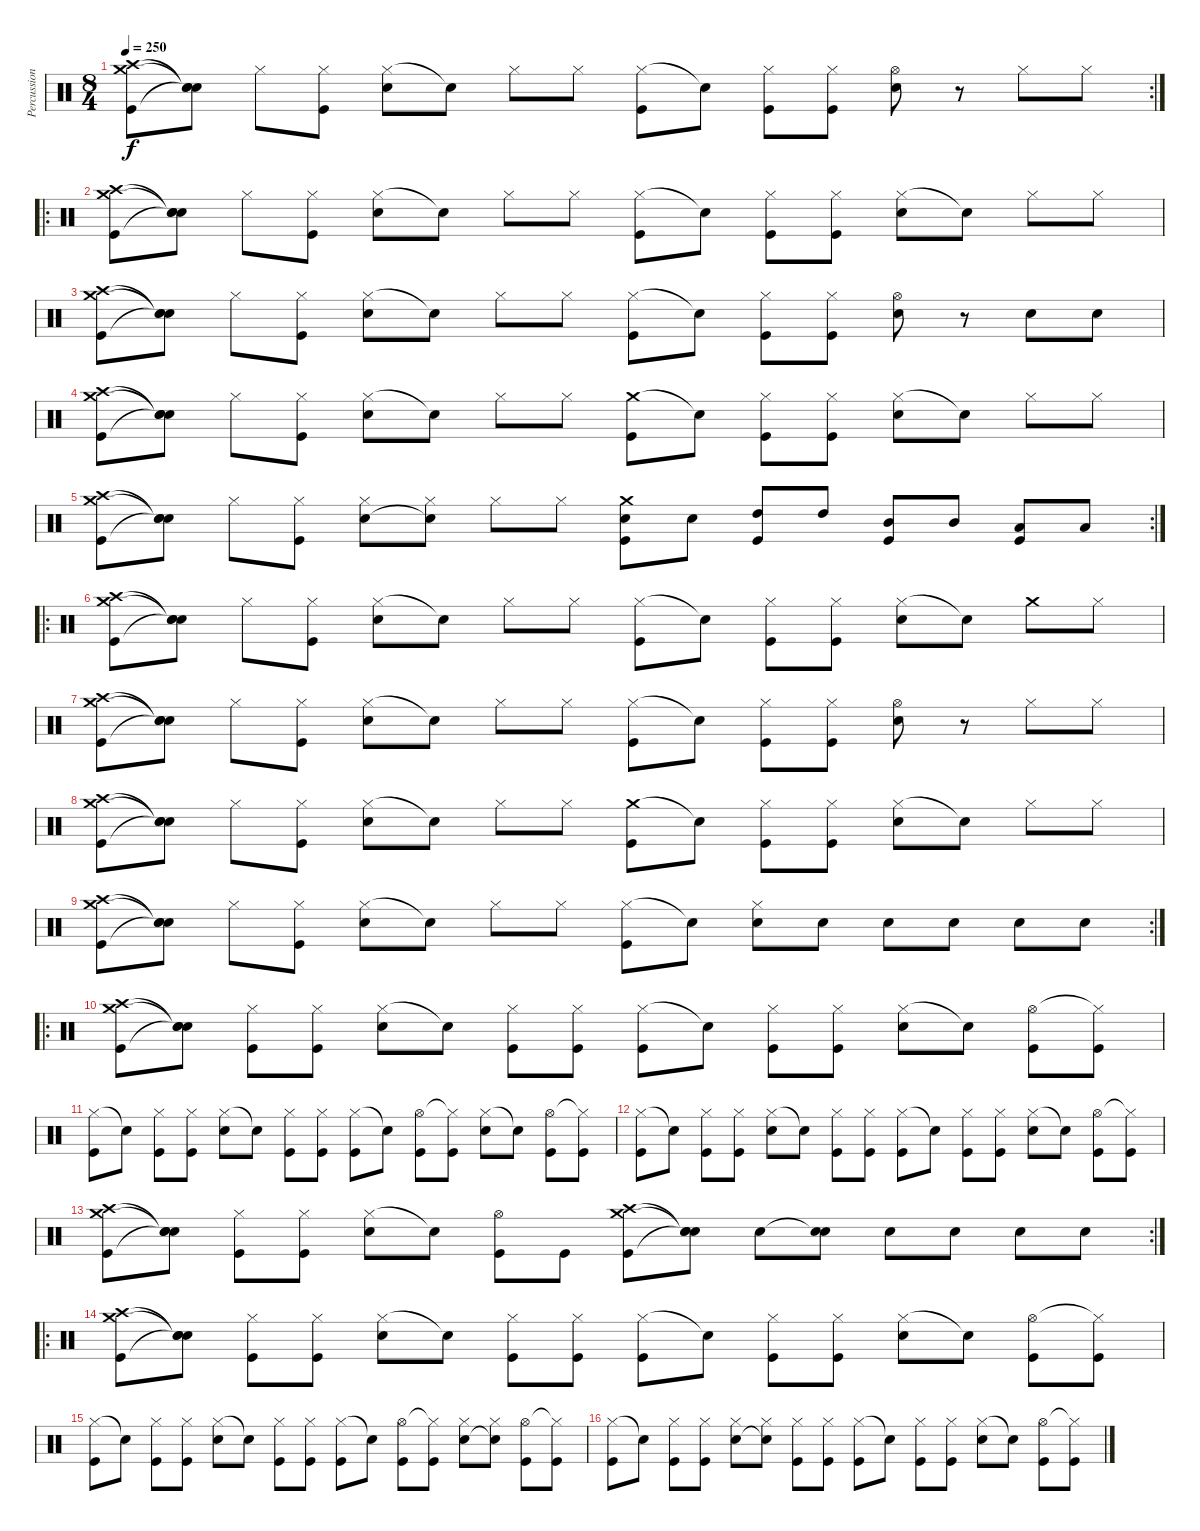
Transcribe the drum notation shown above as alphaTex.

\track ("Percussion" "Percussion") {instrument percussion}
\staff {score}
\articulation defaults
\rc 2
\ts (8 4)
\tempo 250
\clef neutral
\ks c
("Crash medium (hit)" "Crash high (hit)" "Kick (hit)").8{dy f} ("Snare (hit)"{t} "Snare (hit)"{t} "Snare (hit)"{t}).8 "Hi-Hat (closed)".8 ("Hi-Hat (closed)" "Kick (hit)").8 ("Hi-Hat (closed)" "Snare (hit) 2").8 "Snare (hit)"{t}.8 "Hi-Hat (closed)".8 "Hi-Hat (closed)".8 ("Hi-Hat (closed)" "Kick (hit)").8 "Snare (hit)"{t}.8 ("Hi-Hat (closed)" "Kick (hit)").8 ("Hi-Hat (closed)" "Kick (hit)").8 ("Hi-Hat (open)" "Snare (hit) 2").8 r.8 "Hi-Hat (closed)".8 "Hi-Hat (closed)".8 |
\ro
("Crash medium (hit)" "Crash high (hit)" "Kick (hit)").8 ("Snare (hit)"{t} "Snare (hit)"{t} "Snare (hit)"{t}).8 "Hi-Hat (closed)".8 ("Hi-Hat (closed)" "Kick (hit)").8 ("Hi-Hat (closed)" "Snare (hit) 2").8 "Snare (hit)"{t}.8 "Hi-Hat (closed)".8 "Hi-Hat (closed)".8 ("Hi-Hat (closed)" "Kick (hit)").8 "Snare (hit)"{t}.8 ("Hi-Hat (closed)" "Kick (hit)").8 ("Hi-Hat (closed)" "Kick (hit)").8 ("Hi-Hat (closed)" "Snare (hit) 2").8 "Snare (hit)"{t}.8 "Hi-Hat (closed)".8 "Hi-Hat (closed)".8 |
("Crash medium (hit)" "Crash high (hit)" "Kick (hit)").8 ("Snare (hit)"{t} "Snare (hit)"{t} "Snare (hit)"{t}).8 "Hi-Hat (closed)".8 ("Hi-Hat (closed)" "Kick (hit)").8 ("Hi-Hat (closed)" "Snare (hit) 2").8 "Snare (hit)"{t}.8 "Hi-Hat (closed)".8 "Hi-Hat (closed)".8 ("Hi-Hat (closed)" "Kick (hit)").8 "Snare (hit)"{t}.8 ("Hi-Hat (closed)" "Kick (hit)").8 ("Hi-Hat (closed)" "Kick (hit)").8 ("Hi-Hat (open)" "Snare (hit) 2").8 r.8 "Snare (hit) 2".8 "Snare (hit) 2".8 |
("Crash medium (hit)" "Crash high (hit)" "Kick (hit)").8 ("Snare (hit)"{t} "Snare (hit)"{t} "Snare (hit)"{t}).8 "Hi-Hat (closed)".8 ("Hi-Hat (closed)" "Kick (hit)").8 ("Hi-Hat (closed)" "Snare (hit) 2").8 "Snare (hit)"{t}.8 "Hi-Hat (closed)".8 "Hi-Hat (closed)".8 ("Crash medium (hit)" "Kick (hit)").8 "Snare (hit)"{t}.8 ("Hi-Hat (closed)" "Kick (hit)").8 ("Hi-Hat (closed)" "Kick (hit)").8 ("Hi-Hat (closed)" "Snare (hit) 2").8 "Snare (hit)"{t}.8 "Hi-Hat (closed)".8 "Hi-Hat (closed)".8 |
\rc 2
("Crash medium (hit)" "Crash high (hit)" "Kick (hit)").8 ("Snare (hit)"{t} "Snare (hit)"{t} "Snare (hit)"{t}).8 "Hi-Hat (closed)".8 ("Hi-Hat (closed)" "Kick (hit)").8 ("Hi-Hat (closed)" "Snare (hit) 2").8 ("Hi-Hat (closed)" "Snare (hit)"{t}).8 "Hi-Hat (closed)".8 "Hi-Hat (closed)".8 ("Crash medium (hit)" "Snare (hit) 2" "Kick (hit)").8 "Snare (hit) 2".8 ("High Tom (hit)" "Kick (hit)").8 "High Tom (hit)".8 ("Mid Tom (hit)" "Kick (hit)").8 "Mid Tom (hit)".8 ("Low Tom (hit)" "Kick (hit)").8 "Low Tom (hit)".8 |
\ro
("Crash medium (hit)" "Crash high (hit)" "Kick (hit)").8 ("Snare (hit)"{t} "Snare (hit)"{t} "Snare (hit)"{t}).8 "Hi-Hat (closed)".8 ("Hi-Hat (closed)" "Kick (hit)").8 ("Hi-Hat (closed)" "Snare (hit) 2").8 "Snare (hit)"{t}.8 "Hi-Hat (closed)".8 "Hi-Hat (closed)".8 ("Hi-Hat (closed)" "Kick (hit)").8 "Snare (hit)"{t}.8 ("Hi-Hat (closed)" "Kick (hit)").8 ("Hi-Hat (closed)" "Kick (hit)").8 ("Hi-Hat (closed)" "Snare (hit) 2").8 "Snare (hit)"{t}.8 "Crash medium (hit)".8 "Hi-Hat (closed)".8 |
("Crash medium (hit)" "Crash high (hit)" "Kick (hit)").8 ("Snare (hit)"{t} "Snare (hit)"{t} "Snare (hit)"{t}).8 "Hi-Hat (closed)".8 ("Hi-Hat (closed)" "Kick (hit)").8 ("Hi-Hat (closed)" "Snare (hit) 2").8 "Snare (hit)"{t}.8 "Hi-Hat (closed)".8 "Hi-Hat (closed)".8 ("Hi-Hat (closed)" "Kick (hit)").8 "Snare (hit)"{t}.8 ("Hi-Hat (closed)" "Kick (hit)").8 ("Hi-Hat (closed)" "Kick (hit)").8 ("Hi-Hat (open)" "Snare (hit) 2").8 r.8 "Hi-Hat (closed)".8 "Hi-Hat (closed)".8 |
("Crash medium (hit)" "Crash high (hit)" "Kick (hit)").8 ("Snare (hit)"{t} "Snare (hit)"{t} "Snare (hit)"{t}).8 "Hi-Hat (closed)".8 ("Hi-Hat (closed)" "Kick (hit)").8 ("Hi-Hat (closed)" "Snare (hit) 2").8 "Snare (hit)"{t}.8 "Hi-Hat (closed)".8 "Hi-Hat (closed)".8 ("Crash medium (hit)" "Kick (hit)").8 "Snare (hit)"{t}.8 ("Hi-Hat (closed)" "Kick (hit)").8 ("Hi-Hat (closed)" "Kick (hit)").8 ("Hi-Hat (closed)" "Snare (hit) 2").8 "Snare (hit)"{t}.8 "Hi-Hat (closed)".8 "Hi-Hat (closed)".8 |
\rc 2
("Crash medium (hit)" "Crash high (hit)" "Kick (hit)").8 ("Snare (hit)"{t} "Snare (hit)"{t} "Snare (hit)"{t}).8 "Hi-Hat (closed)".8 ("Hi-Hat (closed)" "Kick (hit)").8 ("Hi-Hat (closed)" "Snare (hit) 2").8 "Snare (hit)"{t}.8 "Hi-Hat (closed)".8 "Hi-Hat (closed)".8 ("Hi-Hat (closed)" "Kick (hit)").8 "Snare (hit)"{t}.8 ("Hi-Hat (closed)" "Snare (hit) 2").8 "Snare (hit) 2".8 "Snare (hit) 2".8 "Snare (hit) 2".8 "Snare (hit) 2".8 "Snare (hit) 2".8 |
\ro
("Crash medium (hit)" "Crash high (hit)" "Kick (hit)").8 ("Snare (hit)"{t} "Snare (hit)"{t} "Snare (hit)"{t}).8 ("Hi-Hat (closed)" "Kick (hit)").8 ("Hi-Hat (closed)" "Kick (hit)").8 ("Hi-Hat (closed)" "Snare (hit) 2").8 "Snare (hit)"{t}.8 ("Hi-Hat (closed)" "Kick (hit)").8 ("Hi-Hat (closed)" "Kick (hit)").8 ("Hi-Hat (closed)" "Kick (hit)").8 "Snare (hit)"{t}.8 ("Hi-Hat (closed)" "Kick (hit)").8 ("Hi-Hat (closed)" "Kick (hit)").8 ("Hi-Hat (closed)" "Snare (hit) 2").8 "Snare (hit)"{t}.8 ("Hi-Hat (open)" "Kick (hit)").8 ("Hi-Hat (closed)"{t} "Kick (hit)").8 |
("Hi-Hat (closed)" "Kick (hit)").8 "Snare (hit)"{t}.8 ("Hi-Hat (closed)" "Kick (hit)").8 ("Hi-Hat (closed)" "Kick (hit)").8 ("Hi-Hat (closed)" "Snare (hit) 2").8 "Snare (hit)"{t}.8 ("Hi-Hat (closed)" "Kick (hit)").8 ("Hi-Hat (closed)" "Kick (hit)").8 ("Hi-Hat (closed)" "Kick (hit)").8 "Snare (hit)"{t}.8 ("Hi-Hat (open)" "Kick (hit)").8 ("Hi-Hat (closed)"{t} "Kick (hit)").8 ("Hi-Hat (closed)" "Snare (hit) 2").8 "Snare (hit)"{t}.8 ("Hi-Hat (open)" "Kick (hit)").8 ("Hi-Hat (closed)"{t} "Kick (hit)").8 |
("Hi-Hat (closed)" "Kick (hit)").8 "Snare (hit)"{t}.8 ("Hi-Hat (closed)" "Kick (hit)").8 ("Hi-Hat (closed)" "Kick (hit)").8 ("Hi-Hat (closed)" "Snare (hit) 2").8 "Snare (hit)"{t}.8 ("Hi-Hat (closed)" "Kick (hit)").8 ("Hi-Hat (closed)" "Kick (hit)").8 ("Hi-Hat (closed)" "Kick (hit)").8 "Snare (hit)"{t}.8 ("Hi-Hat (closed)" "Kick (hit)").8 ("Hi-Hat (closed)" "Kick (hit)").8 ("Hi-Hat (closed)" "Snare (hit) 2").8 "Snare (hit)"{t}.8 ("Hi-Hat (open)" "Kick (hit)").8 ("Hi-Hat (closed)"{t} "Kick (hit)").8 |
\rc 2
("Crash medium (hit)" "Crash high (hit)" "Kick (hit)").8 ("Snare (hit)"{t} "Snare (hit)"{t} "Snare (hit)"{t}).8 ("Hi-Hat (closed)" "Kick (hit)").8 ("Hi-Hat (closed)" "Kick (hit)").8 ("Hi-Hat (closed)" "Snare (hit) 2").8 "Snare (hit)"{t}.8 ("Hi-Hat (open)" "Kick (hit)").8 "Kick (hit)".8 ("Crash medium (hit)" "Crash high (hit)" "Kick (hit)").8 ("Snare (hit)"{t} "Snare (hit)"{t} "Snare (hit)"{t}).8 "Snare (hit) 2".8 ("Snare (hit)"{t} "Snare (hit) 2").8 "Snare (hit) 2".8 "Snare (hit) 2".8 "Snare (hit) 2".8 "Snare (hit) 2".8 |
\ro
("Crash medium (hit)" "Crash high (hit)" "Kick (hit)").8 ("Snare (hit)"{t} "Snare (hit)"{t} "Snare (hit)"{t}).8 ("Hi-Hat (closed)" "Kick (hit)").8 ("Hi-Hat (closed)" "Kick (hit)").8 ("Hi-Hat (closed)" "Snare (hit) 2").8 "Snare (hit)"{t}.8 ("Hi-Hat (closed)" "Kick (hit)").8 ("Hi-Hat (closed)" "Kick (hit)").8 ("Hi-Hat (closed)" "Kick (hit)").8 "Snare (hit)"{t}.8 ("Hi-Hat (closed)" "Kick (hit)").8 ("Hi-Hat (closed)" "Kick (hit)").8 ("Hi-Hat (closed)" "Snare (hit) 2").8 "Snare (hit)"{t}.8 ("Hi-Hat (open)" "Kick (hit)").8 ("Hi-Hat (closed)"{t} "Kick (hit)").8 |
("Hi-Hat (closed)" "Kick (hit)").8 "Snare (hit)"{t}.8 ("Hi-Hat (closed)" "Kick (hit)").8 ("Hi-Hat (closed)" "Kick (hit)").8 ("Hi-Hat (closed)" "Snare (hit) 2").8 "Snare (hit)"{t}.8 ("Hi-Hat (closed)" "Kick (hit)").8 ("Hi-Hat (closed)" "Kick (hit)").8 ("Hi-Hat (closed)" "Kick (hit)").8 "Snare (hit)"{t}.8 ("Hi-Hat (open)" "Kick (hit)").8 ("Hi-Hat (closed)"{t} "Kick (hit)").8 ("Hi-Hat (closed)" "Snare (hit) 2").8 ("Hi-Hat (closed)" "Snare (hit)"{t}).8 ("Hi-Hat (open)" "Kick (hit)").8 ("Hi-Hat (closed)"{t} "Kick (hit)").8 |
("Hi-Hat (closed)" "Kick (hit)").8 "Snare (hit)"{t}.8 ("Hi-Hat (closed)" "Kick (hit)").8 ("Hi-Hat (closed)" "Kick (hit)").8 ("Hi-Hat (closed)" "Snare (hit) 2").8 ("Hi-Hat (closed)" "Snare (hit)"{t}).8 ("Hi-Hat (closed)" "Kick (hit)").8 ("Hi-Hat (closed)" "Kick (hit)").8 ("Hi-Hat (closed)" "Kick (hit)").8 "Snare (hit)"{t}.8 ("Hi-Hat (closed)" "Kick (hit)").8 ("Hi-Hat (closed)" "Kick (hit)").8 ("Hi-Hat (closed)" "Snare (hit) 2").8 "Snare (hit)"{t}.8 ("Hi-Hat (open)" "Kick (hit)").8 ("Hi-Hat (closed)"{t} "Kick (hit)").8
